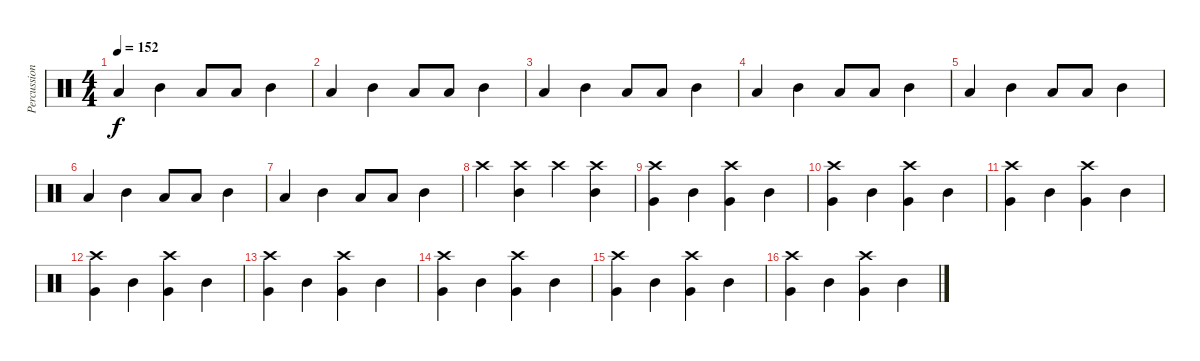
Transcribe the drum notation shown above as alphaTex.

\track ("Percussion" "Percussion") {instrument percussion}
\staff {score}
\articulation defaults
\ts (4 4)
\tempo 152
\clef neutral
\ks c "Low Tom (hit)".4{dy f} "Mid Tom (hit)".4 "Low Tom (hit)".8 "Low Tom (hit)".8 "Mid Tom (hit)".4
|
"Low Tom (hit)".4 "Mid Tom (hit)".4 "Low Tom (hit)".8 "Low Tom (hit)".8 "Mid Tom (hit)".4 |
"Low Tom (hit)".4 "Mid Tom (hit)".4 "Low Tom (hit)".8 "Low Tom (hit)".8 "Mid Tom (hit)".4 |
"Low Tom (hit)".4 "Mid Tom (hit)".4 "Low Tom (hit)".8 "Low Tom (hit)".8 "Mid Tom (hit)".4 |
"Low Tom (hit)".4 "Mid Tom (hit)".4 "Low Tom (hit)".8 "Low Tom (hit)".8 "Mid Tom (hit)".4 |
"Low Tom (hit)".4 "Mid Tom (hit)".4 "Low Tom (hit)".8 "Low Tom (hit)".8 "Mid Tom (hit)".4 |
"Low Tom (hit)".4 "Mid Tom (hit)".4 "Low Tom (hit)".8 "Low Tom (hit)".8 "Mid Tom (hit)".4 |
"Crash high (hit)".4 ("Crash high (hit)" "Mid Tom (hit)").4 "Crash high (hit)".4 ("Crash high (hit)" "Mid Tom (hit)").4 |
("Crash high (hit)" "Very Low Tom (hit)").4 "Mid Tom (hit)".4 ("Crash high (hit)" "Very Low Tom (hit)").4 "Mid Tom (hit)".4 |
("Crash high (hit)" "Very Low Tom (hit)").4 "Mid Tom (hit)".4 ("Crash high (hit)" "Very Low Tom (hit)").4 "Mid Tom (hit)".4 |
("Crash high (hit)" "Very Low Tom (hit)").4 "Mid Tom (hit)".4 ("Crash high (hit)" "Very Low Tom (hit)").4 "Mid Tom (hit)".4 |
("Crash high (hit)" "Very Low Tom (hit)").4 "Mid Tom (hit)".4 ("Crash high (hit)" "Very Low Tom (hit)").4 "Mid Tom (hit)".4 |
("Crash high (hit)" "Very Low Tom (hit)").4 "Mid Tom (hit)".4 ("Crash high (hit)" "Very Low Tom (hit)").4 "Mid Tom (hit)".4 |
("Crash high (hit)" "Very Low Tom (hit)").4 "Mid Tom (hit)".4 ("Crash high (hit)" "Very Low Tom (hit)").4 "Mid Tom (hit)".4 |
("Crash high (hit)" "Very Low Tom (hit)").4 "Mid Tom (hit)".4 ("Crash high (hit)" "Very Low Tom (hit)").4 "Mid Tom (hit)".4 |
("Crash high (hit)" "Very Low Tom (hit)").4 "Mid Tom (hit)".4 ("Crash high (hit)" "Very Low Tom (hit)").4 "Mid Tom (hit)".4
